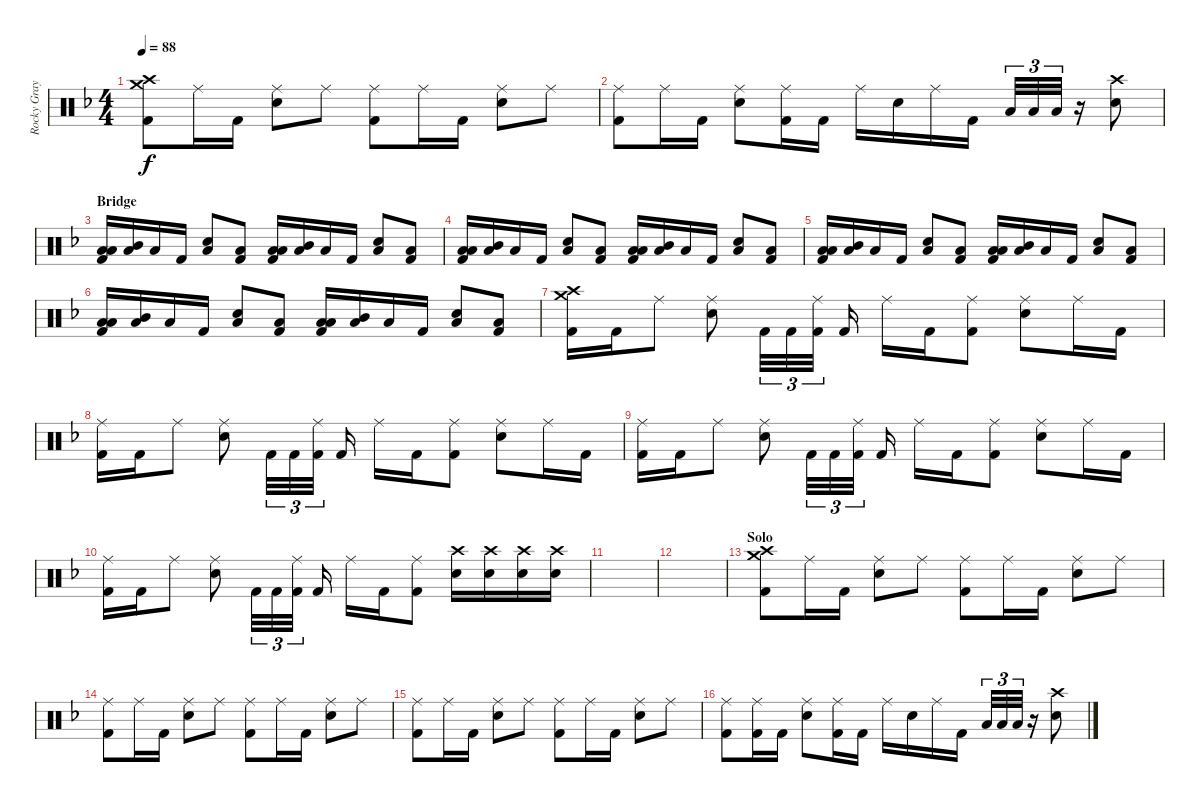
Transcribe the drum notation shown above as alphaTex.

\track ("Rocky Gray" "Rocky Gray") {instrument percussion}
\staff {score}
\articulation defaults
\ts (4 4)
\tempo 88
\clef neutral
\ks f
("Crash high (hit)" "Crash medium (hit)" "Kick (hit) 2").8{dy f} "Ride (middle)".16 "Kick (hit) 2".16 ("Ride (middle)" "Snare (hit) 2").8 "Ride (middle)".8 ("Ride (middle)" "Kick (hit) 2").8 "Ride (middle)".16 "Kick (hit) 2".16 ("Ride (middle)" "Snare (hit) 2").8 "Ride (middle)".8 |
("Ride (middle)" "Kick (hit) 2").8 "Ride (middle)".16 "Kick (hit) 2".16 ("Ride (middle)" "Snare (hit) 2").8 ("Ride (middle)" "Kick (hit) 2").16 "Kick (hit) 2".16 "Ride (middle)".16 "Snare (hit) 2".16 "Ride (middle)".16 "Kick (hit) 2".16 "Low Floor Tom (hit)".32{tu (3 2)} "Low Floor Tom (hit)".32{tu (3 2)} "Low Floor Tom (hit)".32{tu (3 2)} r.16 ("Crash high (hit)" "Snare (hit) 2").8 |
\section ("" "Bridge")
("Low Tom (hit)" "Low Floor Tom (hit)" "Kick (hit) 2").16 ("Mid Tom (hit)" "Low Floor Tom (hit)").16 "Low Floor Tom (hit)".16 "Kick (hit) 2".16 ("Snare (hit) 2" "Low Floor Tom (hit)").8 ("Low Floor Tom (hit)" "Kick (hit) 2").8 ("Low Tom (hit)" "Low Floor Tom (hit)" "Kick (hit) 2").16 ("Mid Tom (hit)" "Low Floor Tom (hit)").16 "Low Floor Tom (hit)".16 "Kick (hit) 2".16 ("Snare (hit) 2" "Low Floor Tom (hit)").8 ("Low Floor Tom (hit)" "Kick (hit) 2").8 |
("Low Tom (hit)" "Low Floor Tom (hit)" "Kick (hit) 2").16 ("Mid Tom (hit)" "Low Floor Tom (hit)").16 "Low Floor Tom (hit)".16 "Kick (hit) 2".16 ("Snare (hit) 2" "Low Floor Tom (hit)").8 ("Low Floor Tom (hit)" "Kick (hit) 2").8 ("Low Tom (hit)" "Low Floor Tom (hit)" "Kick (hit) 2").16 ("Mid Tom (hit)" "Low Floor Tom (hit)").16 "Low Floor Tom (hit)".16 "Kick (hit) 2".16 ("Snare (hit) 2" "Low Floor Tom (hit)").8 ("Low Floor Tom (hit)" "Kick (hit) 2").8 |
("Low Tom (hit)" "Low Floor Tom (hit)" "Kick (hit) 2").16 ("Mid Tom (hit)" "Low Floor Tom (hit)").16 "Low Floor Tom (hit)".16 "Kick (hit) 2".16 ("Snare (hit) 2" "Low Floor Tom (hit)").8 ("Low Floor Tom (hit)" "Kick (hit) 2").8 ("Low Tom (hit)" "Low Floor Tom (hit)" "Kick (hit) 2").16 ("Mid Tom (hit)" "Low Floor Tom (hit)").16 "Low Floor Tom (hit)".16 "Kick (hit) 2".16 ("Snare (hit) 2" "Low Floor Tom (hit)").8 ("Low Floor Tom (hit)" "Kick (hit) 2").8 |
("Low Tom (hit)" "Low Floor Tom (hit)" "Kick (hit) 2").16 ("Mid Tom (hit)" "Low Floor Tom (hit)").16 "Low Floor Tom (hit)".16 "Kick (hit) 2".16 ("Snare (hit) 2" "Low Floor Tom (hit)").8 ("Low Floor Tom (hit)" "Kick (hit) 2").8 ("Low Tom (hit)" "Low Floor Tom (hit)" "Kick (hit) 2").16 ("Mid Tom (hit)" "Low Floor Tom (hit)").16 "Low Floor Tom (hit)".16 "Kick (hit) 2".16 ("Snare (hit) 2" "Low Floor Tom (hit)").8 ("Low Floor Tom (hit)" "Kick (hit) 2").8 |
("Crash high (hit)" "Crash medium (hit)" "Kick (hit) 2").16 "Kick (hit) 2".16 "Ride (middle)".8 ("Ride (middle)" "Snare (hit) 2").8 "Kick (hit) 2".32{tu (3 2)} "Kick (hit) 2".32{tu (3 2)} ("Ride (middle)" "Kick (hit) 2").32{tu (3 2)} "Kick (hit) 2".16 "Ride (middle)".16 "Kick (hit) 2".16 ("Ride (middle)" "Kick (hit) 2").8 ("Ride (middle)" "Snare (hit) 2").8 "Ride (middle)".16 "Kick (hit) 2".16 |
("Ride (middle)" "Kick (hit) 2").16 "Kick (hit) 2".16 "Ride (middle)".8 ("Ride (middle)" "Snare (hit) 2").8 "Kick (hit) 2".32{tu (3 2)} "Kick (hit) 2".32{tu (3 2)} ("Ride (middle)" "Kick (hit) 2").32{tu (3 2)} "Kick (hit) 2".16 "Ride (middle)".16 "Kick (hit) 2".16 ("Ride (middle)" "Kick (hit) 2").8 ("Ride (middle)" "Snare (hit) 2").8 "Ride (middle)".16 "Kick (hit) 2".16 |
("Ride (middle)" "Kick (hit) 2").16 "Kick (hit) 2".16 "Ride (middle)".8 ("Ride (middle)" "Snare (hit) 2").8 "Kick (hit) 2".32{tu (3 2)} "Kick (hit) 2".32{tu (3 2)} ("Ride (middle)" "Kick (hit) 2").32{tu (3 2)} "Kick (hit) 2".16 "Ride (middle)".16 "Kick (hit) 2".16 ("Ride (middle)" "Kick (hit) 2").8 ("Ride (middle)" "Snare (hit) 2").8 "Ride (middle)".16 "Kick (hit) 2".16 |
("Ride (middle)" "Kick (hit) 2").16 "Kick (hit) 2".16 "Ride (middle)".8 ("Ride (middle)" "Snare (hit) 2").8 "Kick (hit) 2".32{tu (3 2)} "Kick (hit) 2".32{tu (3 2)} ("Ride (middle)" "Kick (hit) 2").32{tu (3 2)} "Kick (hit) 2".16 "Ride (middle)".16 "Kick (hit) 2".16 ("Ride (middle)" "Kick (hit) 2").8 ("Crash high (hit)" "Snare (hit) 2").16 ("Crash high (hit)" "Snare (hit) 2").16 ("Crash high (hit)" "Snare (hit) 2").16 ("Crash high (hit)" "Snare (hit) 2").16 |
|
|
\section ("" "Solo")
("Crash high (hit)" "Crash medium (hit)" "Kick (hit) 2").8 "Ride (middle)".16 "Kick (hit) 2".16 ("Ride (middle)" "Snare (hit) 2").8 "Ride (middle)".8 ("Ride (middle)" "Kick (hit) 2").8 "Ride (middle)".16 "Kick (hit) 2".16 ("Ride (middle)" "Snare (hit) 2").8 "Ride (middle)".8 |
("Ride (middle)" "Kick (hit) 2").8 "Ride (middle)".16 "Kick (hit) 2".16 ("Ride (middle)" "Snare (hit) 2").8 "Ride (middle)".8 ("Ride (middle)" "Kick (hit) 2").8 "Ride (middle)".16 "Kick (hit) 2".16 ("Ride (middle)" "Snare (hit) 2").8 "Ride (middle)".8 |
("Ride (middle)" "Kick (hit) 2").8 "Ride (middle)".16 "Kick (hit) 2".16 ("Ride (middle)" "Snare (hit) 2").8 "Ride (middle)".8 ("Ride (middle)" "Kick (hit) 2").8 "Ride (middle)".16 "Kick (hit) 2".16 ("Ride (middle)" "Snare (hit) 2").8 "Ride (middle)".8 |
("Ride (middle)" "Kick (hit) 2").8 ("Ride (middle)" "Kick (hit) 2").16 "Kick (hit) 2".16 ("Ride (middle)" "Snare (hit) 2").8 ("Ride (middle)" "Kick (hit) 2").16 "Kick (hit) 2".16 "Ride (middle)".16 "Snare (hit) 2".16 "Ride (middle)".16 "Kick (hit) 2".16 "Low Floor Tom (hit)".32{tu (3 2)} "Low Floor Tom (hit)".32{tu (3 2)} "Low Floor Tom (hit)".32{tu (3 2)} r.16 ("Crash high (hit)" "Snare (hit) 2").8
